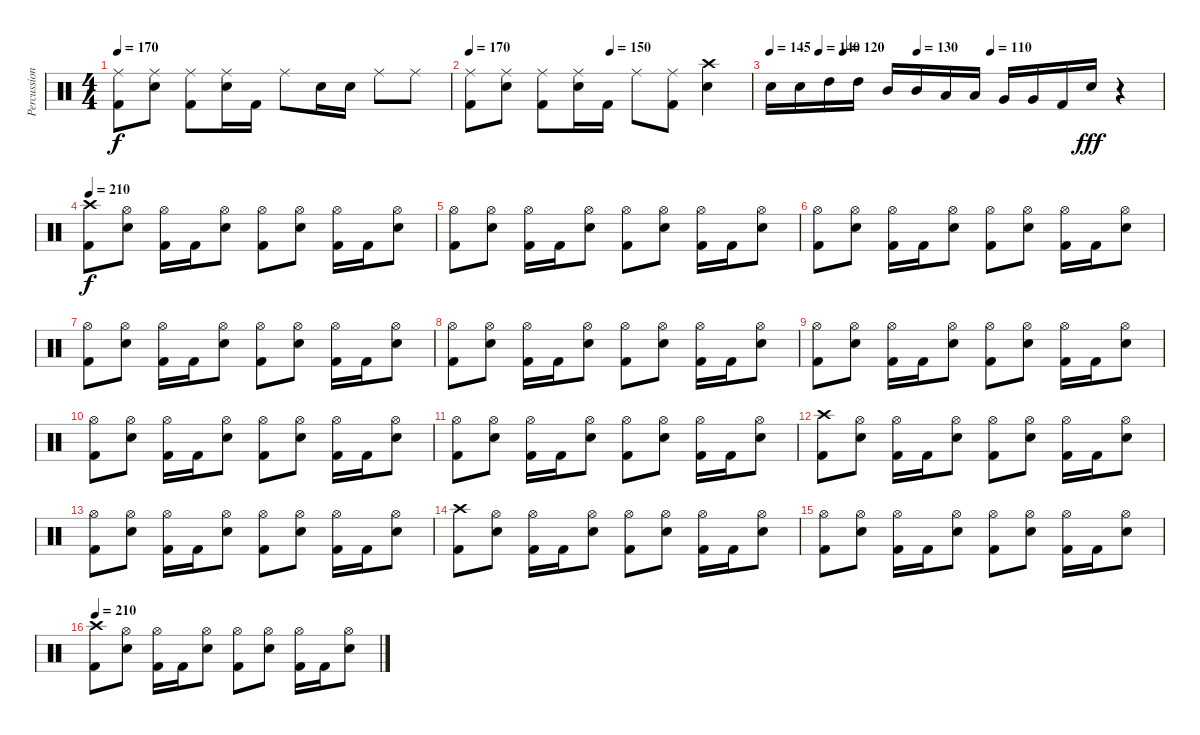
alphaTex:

\track ("Percussions" "Percussion") {instrument percussion}
\staff {score}
\articulation defaults
\ts (4 4)
\tempo 170
\clef neutral
\ks c
("Ride (middle)" "Kick (hit) 2").8{dy f} ("Ride (middle)" "Snare (hit) 2").8 ("Ride (middle)" "Kick (hit) 2").8 ("Ride (middle)" "Snare (hit) 2").16 "Kick (hit) 2".16 "Ride (middle)".8 "Snare (hit) 2".16 "Snare (hit) 2".16 "Ride (middle)".8 "Ride (middle)".8 |
\tempo 170
\tempo (150 0.5)
("Ride (middle)" "Kick (hit) 2").8 ("Ride (middle)" "Snare (hit) 2").8 ("Ride (middle)" "Kick (hit) 2").8 ("Ride (middle)" "Snare (hit) 2").16 "Kick (hit) 2".16 "Ride (middle)".8 ("Ride (middle)" "Kick (hit) 2").8 ("Crash high (hit)" "Snare (hit) 2").4 |
\tempo 145
\tempo (140 0.125)
\tempo (120 0.1875)
\tempo (130 0.375)
\tempo (110 0.5625)
"Snare (hit) 2".16 "Snare (hit) 2".16 "High Tom (hit)".16 "High Tom (hit)".16 "Mid Tom (hit)".16 "Mid Tom (hit)".16 "Low Tom (hit)".16 "Low Tom (hit)".16 "Very Low Tom (hit)".16 "Very Low Tom (hit)".16 "Kick (hit) 2".16 "Snare (hit) 2".16{dy fff} r.4 |
\tempo 210
("Crash high (hit)" "Kick (hit) 2").8{dy f} ("Hi-Hat (open)" "Snare (hit) 2").8 ("Hi-Hat (open)" "Kick (hit) 2").16 "Kick (hit) 2".16 ("Hi-Hat (open)" "Snare (hit) 2").8 ("Hi-Hat (open)" "Kick (hit) 2").8 ("Hi-Hat (open)" "Snare (hit) 2").8 ("Hi-Hat (open)" "Kick (hit) 2").16 "Kick (hit) 2".16 ("Hi-Hat (open)" "Snare (hit) 2").8 |
("Hi-Hat (open)" "Kick (hit) 2").8 ("Hi-Hat (open)" "Snare (hit) 2").8 ("Hi-Hat (open)" "Kick (hit) 2").16 "Kick (hit) 2".16 ("Hi-Hat (open)" "Snare (hit) 2").8 ("Hi-Hat (open)" "Kick (hit) 2").8 ("Hi-Hat (open)" "Snare (hit) 2").8 ("Hi-Hat (open)" "Kick (hit) 2").16 "Kick (hit) 2".16 ("Hi-Hat (open)" "Snare (hit) 2").8 |
("Hi-Hat (open)" "Kick (hit) 2").8 ("Hi-Hat (open)" "Snare (hit) 2").8 ("Hi-Hat (open)" "Kick (hit) 2").16 "Kick (hit) 2".16 ("Hi-Hat (open)" "Snare (hit) 2").8 ("Hi-Hat (open)" "Kick (hit) 2").8 ("Hi-Hat (open)" "Snare (hit) 2").8 ("Hi-Hat (open)" "Kick (hit) 2").16 "Kick (hit) 2".16 ("Hi-Hat (open)" "Snare (hit) 2").8 |
("Hi-Hat (open)" "Kick (hit) 2").8 ("Hi-Hat (open)" "Snare (hit) 2").8 ("Hi-Hat (open)" "Kick (hit) 2").16 "Kick (hit) 2".16 ("Hi-Hat (open)" "Snare (hit) 2").8 ("Hi-Hat (open)" "Kick (hit) 2").8 ("Hi-Hat (open)" "Snare (hit) 2").8 ("Hi-Hat (open)" "Kick (hit) 2").16 "Kick (hit) 2".16 ("Hi-Hat (open)" "Snare (hit) 2").8 |
("Hi-Hat (open)" "Kick (hit) 2").8 ("Hi-Hat (open)" "Snare (hit) 2").8 ("Hi-Hat (open)" "Kick (hit) 2").16 "Kick (hit) 2".16 ("Hi-Hat (open)" "Snare (hit) 2").8 ("Hi-Hat (open)" "Kick (hit) 2").8 ("Hi-Hat (open)" "Snare (hit) 2").8 ("Hi-Hat (open)" "Kick (hit) 2").16 "Kick (hit) 2".16 ("Hi-Hat (open)" "Snare (hit) 2").8 |
("Hi-Hat (open)" "Kick (hit) 2").8 ("Hi-Hat (open)" "Snare (hit) 2").8 ("Hi-Hat (open)" "Kick (hit) 2").16 "Kick (hit) 2".16 ("Hi-Hat (open)" "Snare (hit) 2").8 ("Hi-Hat (open)" "Kick (hit) 2").8 ("Hi-Hat (open)" "Snare (hit) 2").8 ("Hi-Hat (open)" "Kick (hit) 2").16 "Kick (hit) 2".16 ("Hi-Hat (open)" "Snare (hit) 2").8 |
("Hi-Hat (open)" "Kick (hit) 2").8 ("Hi-Hat (open)" "Snare (hit) 2").8 ("Hi-Hat (open)" "Kick (hit) 2").16 "Kick (hit) 2".16 ("Hi-Hat (open)" "Snare (hit) 2").8 ("Hi-Hat (open)" "Kick (hit) 2").8 ("Hi-Hat (open)" "Snare (hit) 2").8 ("Hi-Hat (open)" "Kick (hit) 2").16 "Kick (hit) 2".16 ("Hi-Hat (open)" "Snare (hit) 2").8 |
("Hi-Hat (open)" "Kick (hit) 2").8 ("Hi-Hat (open)" "Snare (hit) 2").8 ("Hi-Hat (open)" "Kick (hit) 2").16 "Kick (hit) 2".16 ("Hi-Hat (open)" "Snare (hit) 2").8 ("Hi-Hat (open)" "Kick (hit) 2").8 ("Hi-Hat (open)" "Snare (hit) 2").8 ("Hi-Hat (open)" "Kick (hit) 2").16 "Kick (hit) 2".16 ("Hi-Hat (open)" "Snare (hit) 2").8 |
("Crash high (hit)" "Kick (hit) 2").8 ("Hi-Hat (open)" "Snare (hit) 2").8 ("Hi-Hat (open)" "Kick (hit) 2").16 "Kick (hit) 2".16 ("Hi-Hat (open)" "Snare (hit) 2").8 ("Hi-Hat (open)" "Kick (hit) 2").8 ("Hi-Hat (open)" "Snare (hit) 2").8 ("Hi-Hat (open)" "Kick (hit) 2").16 "Kick (hit) 2".16 ("Hi-Hat (open)" "Snare (hit) 2").8 |
("Hi-Hat (open)" "Kick (hit) 2").8 ("Hi-Hat (open)" "Snare (hit) 2").8 ("Hi-Hat (open)" "Kick (hit) 2").16 "Kick (hit) 2".16 ("Hi-Hat (open)" "Snare (hit) 2").8 ("Hi-Hat (open)" "Kick (hit) 2").8 ("Hi-Hat (open)" "Snare (hit) 2").8 ("Hi-Hat (open)" "Kick (hit) 2").16 "Kick (hit) 2".16 ("Hi-Hat (open)" "Snare (hit) 2").8 |
("Crash high (hit)" "Kick (hit) 2").8 ("Hi-Hat (open)" "Snare (hit) 2").8 ("Hi-Hat (open)" "Kick (hit) 2").16 "Kick (hit) 2".16 ("Hi-Hat (open)" "Snare (hit) 2").8 ("Hi-Hat (open)" "Kick (hit) 2").8 ("Hi-Hat (open)" "Snare (hit) 2").8 ("Hi-Hat (open)" "Kick (hit) 2").16 "Kick (hit) 2".16 ("Hi-Hat (open)" "Snare (hit) 2").8 |
("Hi-Hat (open)" "Kick (hit) 2").8 ("Hi-Hat (open)" "Snare (hit) 2").8 ("Hi-Hat (open)" "Kick (hit) 2").16 "Kick (hit) 2".16 ("Hi-Hat (open)" "Snare (hit) 2").8 ("Hi-Hat (open)" "Kick (hit) 2").8 ("Hi-Hat (open)" "Snare (hit) 2").8 ("Hi-Hat (open)" "Kick (hit) 2").16 "Kick (hit) 2".16 ("Hi-Hat (open)" "Snare (hit) 2").8 |
\tempo 210
("Crash high (hit)" "Kick (hit) 2").8 ("Hi-Hat (open)" "Snare (hit) 2").8 ("Hi-Hat (open)" "Kick (hit) 2").16 "Kick (hit) 2".16 ("Hi-Hat (open)" "Snare (hit) 2").8 ("Hi-Hat (open)" "Kick (hit) 2").8 ("Hi-Hat (open)" "Snare (hit) 2").8 ("Hi-Hat (open)" "Kick (hit) 2").16 "Kick (hit) 2".16 ("Hi-Hat (open)" "Snare (hit) 2").8
